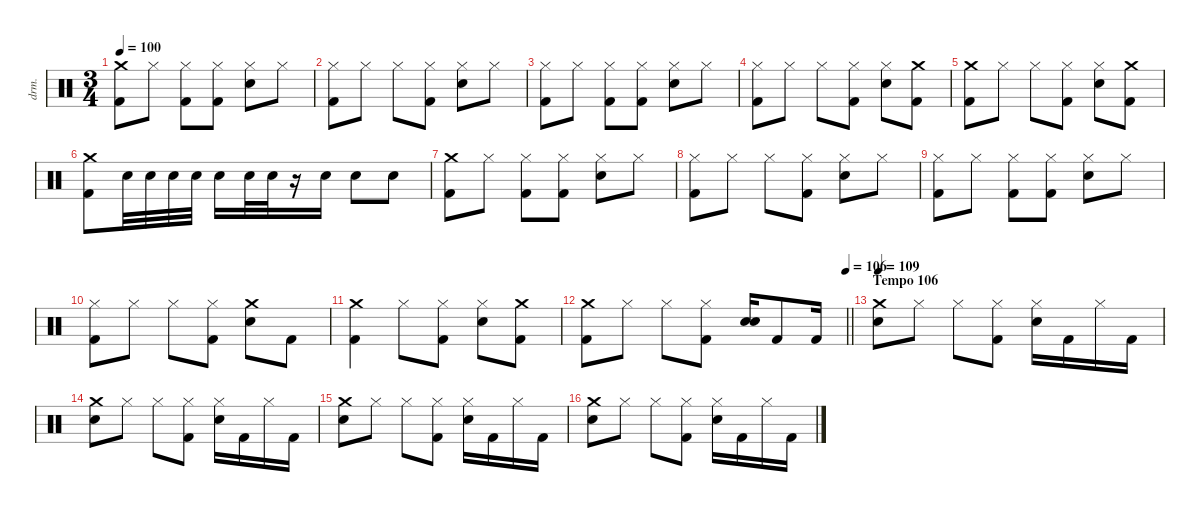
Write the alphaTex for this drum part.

\defaultSystemsLayout 4
\hideDynamics
\bracketExtendMode nobrackets
\otherSystemsTrackNameOrientation horizontal
\track ("Drums" "drm.") {instrument percussion}
\staff {score}
\articulation defaults
\ts (3 4)
\tempo 100
\clef neutral
\ks c
("Crash medium (hit)" "Kick (hit) 2").8{dy fff} "Hi-Hat (closed)".8 ("Kick (hit) 2" "Hi-Hat (closed)").8 ("Kick (hit) 2" "Hi-Hat (closed)").8 ("Snare (hit) 2" "Hi-Hat (closed)").8 "Hi-Hat (closed)".8 |
("Hi-Hat (closed)" "Kick (hit) 2").8 "Hi-Hat (closed)".8 "Hi-Hat (closed)".8 ("Kick (hit) 2" "Hi-Hat (closed)").8 ("Hi-Hat (closed)" "Snare (hit) 2").8 "Hi-Hat (closed)".8 |
("Hi-Hat (closed)" "Kick (hit) 2").8 "Hi-Hat (closed)".8 ("Kick (hit) 2" "Hi-Hat (closed)").8 ("Kick (hit) 2" "Hi-Hat (closed)").8 ("Hi-Hat (closed)" "Snare (hit) 2").8 "Hi-Hat (closed)".8 |
("Hi-Hat (closed)" "Kick (hit) 2").8 "Hi-Hat (closed)".8 "Hi-Hat (closed)".8 ("Kick (hit) 2" "Hi-Hat (closed)").8 ("Hi-Hat (closed)" "Snare (hit) 2").8 ("Crash medium (hit)" "Kick (hit) 2").8 |
("Kick (hit) 2" "Crash medium (hit)").8 "Hi-Hat (closed)".8 "Hi-Hat (closed)".8 ("Kick (hit) 2" "Hi-Hat (closed)").8 ("Snare (hit) 2" "Hi-Hat (closed)").8 ("Kick (hit) 2" "Crash medium (hit)").8 |
("Kick (hit) 2" "Crash medium (hit)").8 "Snare (hit) 2".32 "Snare (hit) 2".32 "Snare (hit) 2".32 "Snare (hit) 2".32 "Snare (hit) 2".16 "Snare (hit) 2".32 "Snare (hit) 2".32 r.16 "Snare (hit) 2".16 "Snare (hit) 2".8 "Snare (hit) 2".8 |
("Crash medium (hit)" "Kick (hit) 2").8 "Hi-Hat (closed)".8 ("Kick (hit) 2" "Hi-Hat (closed)").8 ("Kick (hit) 2" "Hi-Hat (closed)").8 ("Snare (hit) 2" "Hi-Hat (closed)").8 "Hi-Hat (closed)".8 |
("Hi-Hat (closed)" "Kick (hit) 2").8 "Hi-Hat (closed)".8 "Hi-Hat (closed)".8 ("Kick (hit) 2" "Hi-Hat (closed)").8 ("Hi-Hat (closed)" "Snare (hit) 2").8 "Hi-Hat (closed)".8 |
("Hi-Hat (closed)" "Kick (hit) 2").8 "Hi-Hat (closed)".8 ("Kick (hit) 2" "Hi-Hat (closed)").8 ("Kick (hit) 2" "Hi-Hat (closed)").8 ("Hi-Hat (closed)" "Snare (hit) 2").8 "Hi-Hat (closed)".8 |
("Kick (hit) 2" "Hi-Hat (closed)").8 "Hi-Hat (closed)".8 "Hi-Hat (closed)".8 ("Kick (hit) 2" "Hi-Hat (closed)").8 ("Snare (hit) 2" "Crash medium (hit)").8 "Kick (hit) 2".8 |
("Kick (hit) 2" "Crash medium (hit)").4 "Hi-Hat (closed)".8 ("Kick (hit) 2" "Hi-Hat (closed)").8 ("Hi-Hat (closed)" "Snare (hit) 2").8 ("Kick (hit) 2" "Crash medium (hit)").8 |
\tempo (106 1)
\barLineRight lightlight
("Kick (hit) 2" "Crash medium (hit)").8 "Hi-Hat (closed)".8 "Hi-Hat (closed)".8 ("Kick (hit) 2" "Hi-Hat (closed)").8 ("Snare (hit) 2" "Snare (hit) 2").16{dy f} "Kick (hit) 2".8{dy fff} "Kick (hit) 2".16 |
\section ("" "Tempo 106")
\tempo 109
("Snare (hit) 2" "Crash medium (hit)").8 "Hi-Hat (closed)".8 "Hi-Hat (closed)".8 ("Kick (hit) 2" "Hi-Hat (closed)").8 ("Snare (hit) 2" "Hi-Hat (closed)").16 "Kick (hit) 2".16 "Hi-Hat (closed)".16 "Kick (hit) 2".16 |
("Snare (hit) 2" "Crash medium (hit)").8 "Hi-Hat (closed)".8 "Hi-Hat (closed)".8 ("Kick (hit) 2" "Hi-Hat (closed)").8 ("Snare (hit) 2" "Hi-Hat (closed)").16 "Kick (hit) 2".16 "Hi-Hat (closed)".16 "Kick (hit) 2".16 |
("Snare (hit) 2" "Crash medium (hit)").8 "Hi-Hat (closed)".8 "Hi-Hat (closed)".8 ("Kick (hit) 2" "Hi-Hat (closed)").8 ("Snare (hit) 2" "Hi-Hat (closed)").16 "Kick (hit) 2".16 "Hi-Hat (closed)".16 "Kick (hit) 2".16 |
("Snare (hit) 2" "Crash medium (hit)").8 "Hi-Hat (closed)".8 "Hi-Hat (closed)".8 ("Kick (hit) 2" "Hi-Hat (closed)").8 ("Snare (hit) 2" "Hi-Hat (closed)").16 "Kick (hit) 2".16 "Hi-Hat (closed)".16 "Kick (hit) 2".16
